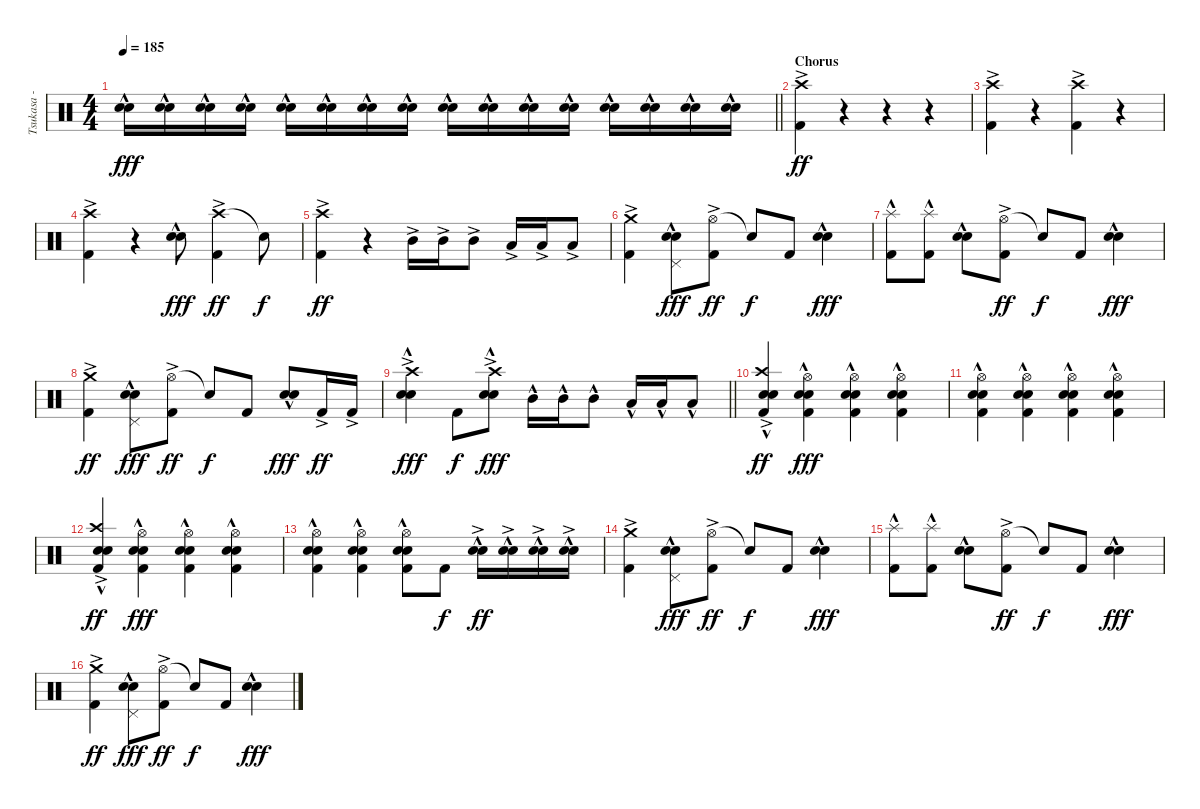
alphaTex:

\track ("Tsukasa - Drums" "Tsukasa - ") {instrument percussion}
\staff {score}
\articulation defaults
\ts (4 4)
\tempo 185
\clef neutral
\barLineRight lightlight
\ks c
("Electric Snare (hit)"{hac} "Snare (hit) 2"{hac}).16{dy fff} ("Electric Snare (hit)"{hac} "Snare (hit) 2"{hac}).16 ("Electric Snare (hit)"{hac} "Snare (hit) 2"{hac}).16 ("Electric Snare (hit)"{hac} "Snare (hit) 2"{hac}).16 ("Electric Snare (hit)"{hac} "Snare (hit) 2"{hac}).16 ("Electric Snare (hit)"{hac} "Snare (hit) 2"{hac}).16 ("Electric Snare (hit)"{hac} "Snare (hit) 2"{hac}).16 ("Electric Snare (hit)"{hac} "Snare (hit) 2"{hac}).16 ("Electric Snare (hit)"{hac} "Snare (hit) 2"{hac}).16 ("Electric Snare (hit)"{hac} "Snare (hit) 2"{hac}).16 ("Electric Snare (hit)"{hac} "Snare (hit) 2"{hac}).16 ("Electric Snare (hit)"{hac} "Snare (hit) 2"{hac}).16 ("Electric Snare (hit)"{hac} "Snare (hit) 2"{hac}).16 ("Electric Snare (hit)"{hac} "Snare (hit) 2"{hac}).16 ("Electric Snare (hit)"{hac} "Snare (hit) 2"{hac}).16 ("Electric Snare (hit)"{hac} "Snare (hit) 2"{hac}).16 |
\section ("" "Chorus")
("Crash high (hit)"{ac} "Kick (hit) 2").4{dy ff} r.4 r.4 r.4 |
("Crash high (hit)"{ac} "Kick (hit) 2").4 r.4 ("Crash high (hit)"{ac} "Kick (hit) 2").4 r.4 |
("Crash high (hit)"{ac} "Kick (hit) 2").4 r.4 ("Electric Snare (hit)"{hac} "Snare (hit) 2"{hac}).8{dy fff} ("Crash high (hit)"{ac} "Kick (hit) 2").4{dy ff} "Snare (hit)"{t}.8{dy f} |
("Crash high (hit)"{ac} "Kick (hit) 2").4{dy ff} r.4 "Mid Tom (hit)"{ac}.16 "Mid Tom (hit)"{ac}.16 "Mid Tom (hit)"{ac}.8 "Low Tom (hit)"{ac}.16 "Low Tom (hit)"{ac}.16 "Low Tom (hit)"{ac}.8 |
("Crash medium (hit)"{ac} "Kick (hit) 2").4 ("Pedal Hi-Hat (hit)" "Electric Snare (hit)"{hac} "Snare (hit) 2"{hac}).8{dy fff} ("Hi-Hat (open)"{ac} "Kick (hit) 2").8{dy ff} "Snare (hit)"{t}.8{dy f} "Kick (hit) 2".8 ("Electric Snare (hit)"{hac} "Snare (hit) 2"{hac}).4{dy fff} |
("Splash (hit)"{hac} "Kick (hit) 2").8 ("Splash (hit)"{hac} "Kick (hit) 2").8 ("Electric Snare (hit)"{hac} "Snare (hit) 2"{hac}).8 ("Hi-Hat (open)"{ac} "Kick (hit) 2").8{dy ff} "Snare (hit)"{t}.8{dy f} "Kick (hit) 2".8 ("Electric Snare (hit)"{hac} "Snare (hit) 2"{hac}).4{dy fff} |
("Crash medium (hit)"{ac} "Kick (hit) 2").4{dy ff} ("Pedal Hi-Hat (hit)" "Electric Snare (hit)"{hac} "Snare (hit) 2"{hac}).8{dy fff} ("Hi-Hat (open)"{ac} "Kick (hit) 2").8{dy ff} "Snare (hit)"{t}.8{dy f} "Kick (hit) 2".8 ("Electric Snare (hit)"{hac} "Snare (hit) 2"{hac}).8{dy fff} "Kick (hit) 2"{ac}.16{dy ff} "Kick (hit) 2"{ac}.16 |
\barLineRight lightlight
("Crash high (hit)"{ac} "Electric Snare (hit)"{hac} "Snare (hit) 2"{hac}).4{dy fff} "Kick (hit) 2".8{dy f} ("Crash high (hit)"{ac} "Electric Snare (hit)"{hac} "Snare (hit) 2"{hac}).8{dy fff} "Mid Tom (hit)"{hac}.16 "Mid Tom (hit)"{hac}.16 "Mid Tom (hit)"{hac}.8 "Low Tom (hit)"{hac}.16 "Low Tom (hit)"{hac}.16 "Low Tom (hit)"{hac}.8 |
\section ("" "")
("Crash high (hit)"{ac} "Electric Snare (hit)"{hac} "Snare (hit) 2"{ac} "Kick (hit) 2").4{dy ff} ("Hi-Hat (open)" "Electric Snare (hit)"{hac} "Snare (hit) 2" "Kick (hit) 2").4{dy fff} ("Hi-Hat (open)" "Electric Snare (hit)"{hac} "Snare (hit) 2" "Kick (hit) 2").4 ("Hi-Hat (open)" "Electric Snare (hit)"{hac} "Snare (hit) 2" "Kick (hit) 2").4 |
("Hi-Hat (open)" "Electric Snare (hit)"{hac} "Snare (hit) 2" "Kick (hit) 2").4 ("Hi-Hat (open)" "Electric Snare (hit)"{hac} "Snare (hit) 2" "Kick (hit) 2").4 ("Hi-Hat (open)" "Electric Snare (hit)"{hac} "Snare (hit) 2" "Kick (hit) 2").4 ("Hi-Hat (open)" "Electric Snare (hit)"{hac} "Snare (hit) 2" "Kick (hit) 2").4 |
("Crash high (hit)"{ac} "Electric Snare (hit)"{hac} "Snare (hit) 2"{ac} "Kick (hit) 2").4{dy ff} ("Hi-Hat (open)" "Electric Snare (hit)"{hac} "Snare (hit) 2" "Kick (hit) 2").4{dy fff} ("Hi-Hat (open)" "Electric Snare (hit)"{hac} "Snare (hit) 2" "Kick (hit) 2").4 ("Hi-Hat (open)" "Electric Snare (hit)"{hac} "Snare (hit) 2" "Kick (hit) 2").4 |
("Hi-Hat (open)" "Electric Snare (hit)"{hac} "Snare (hit) 2" "Kick (hit) 2").4 ("Hi-Hat (open)" "Electric Snare (hit)"{hac} "Snare (hit) 2" "Kick (hit) 2").4 ("Hi-Hat (open)" "Electric Snare (hit)"{hac} "Snare (hit) 2" "Kick (hit) 2").8 "Kick (hit) 2".8{dy f} ("Electric Snare (hit)"{hac} "Snare (hit) 2"{ac}).16{dy ff} ("Electric Snare (hit)"{hac} "Snare (hit) 2"{ac}).16 ("Electric Snare (hit)"{hac} "Snare (hit) 2"{ac}).16 ("Electric Snare (hit)"{hac} "Snare (hit) 2"{ac}).16 |
("Crash medium (hit)"{ac} "Kick (hit) 2").4 ("Pedal Hi-Hat (hit)" "Electric Snare (hit)"{hac} "Snare (hit) 2"{hac}).8{dy fff} ("Hi-Hat (open)"{ac} "Kick (hit) 2").8{dy ff} "Snare (hit)"{t}.8{dy f} "Kick (hit) 2".8 ("Electric Snare (hit)"{hac} "Snare (hit) 2"{hac}).4{dy fff} |
("Splash (hit)"{hac} "Kick (hit) 2").8 ("Splash (hit)"{hac} "Kick (hit) 2").8 ("Electric Snare (hit)"{hac} "Snare (hit) 2"{hac}).8 ("Hi-Hat (open)"{ac} "Kick (hit) 2").8{dy ff} "Snare (hit)"{t}.8{dy f} "Kick (hit) 2".8 ("Electric Snare (hit)"{hac} "Snare (hit) 2"{hac}).4{dy fff} |
("Crash medium (hit)"{ac} "Kick (hit) 2").4{dy ff} ("Pedal Hi-Hat (hit)" "Electric Snare (hit)"{hac} "Snare (hit) 2"{hac}).8{dy fff} ("Hi-Hat (open)"{ac} "Kick (hit) 2").8{dy ff} "Snare (hit)"{t}.8{dy f} "Kick (hit) 2".8 ("Electric Snare (hit)"{hac} "Snare (hit) 2"{hac}).4{dy fff}
